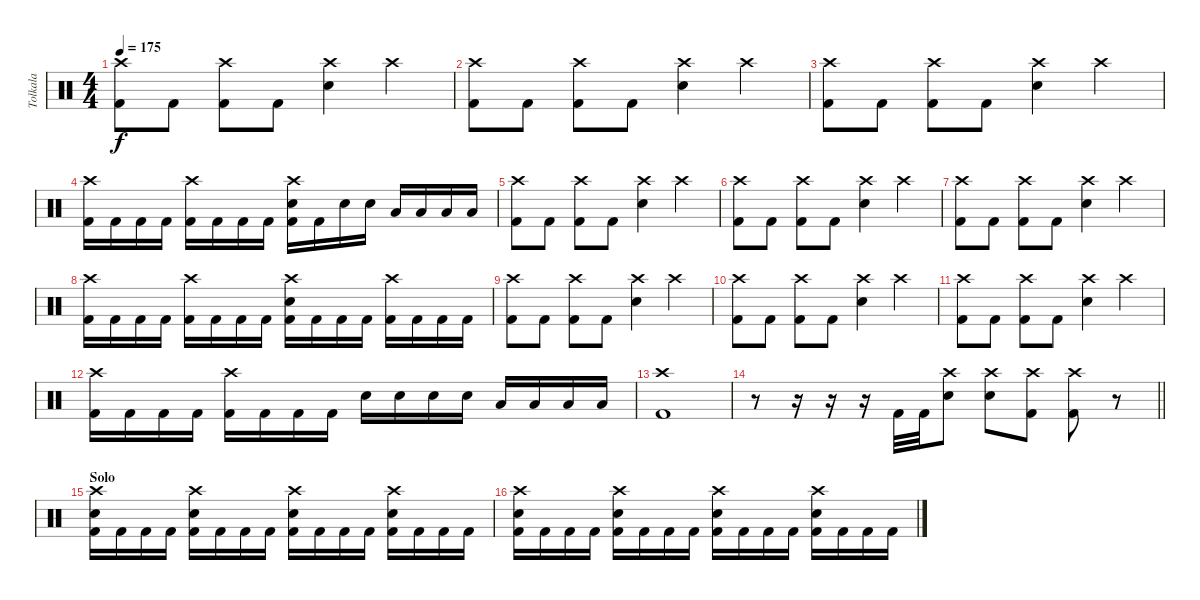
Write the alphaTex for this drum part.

\track ("Tolkala" "Tolkala") {instrument percussion}
\staff {score}
\articulation defaults
\ts (4 4)
\tempo 175
\clef neutral
\ks c
("Crash high (hit)" "Kick (hit) 2").8{dy f} "Kick (hit) 2".8 ("Crash high (hit)" "Kick (hit) 2").8 "Kick (hit) 2".8 ("Crash high (hit)" "Electric Snare (hit)").4 "Crash high (hit)".4 |
("Crash high (hit)" "Kick (hit) 2").8 "Kick (hit) 2".8 ("Crash high (hit)" "Kick (hit) 2").8 "Kick (hit) 2".8 ("Crash high (hit)" "Electric Snare (hit)").4 "Crash high (hit)".4 |
("Crash high (hit)" "Kick (hit) 2").8 "Kick (hit) 2".8 ("Crash high (hit)" "Kick (hit) 2").8 "Kick (hit) 2".8 ("Crash high (hit)" "Electric Snare (hit)").4 "Crash high (hit)".4 |
("Crash high (hit)" "Kick (hit) 2").16 "Kick (hit) 2".16 "Kick (hit) 2".16 "Kick (hit) 2".16 ("Crash high (hit)" "Kick (hit) 2").16 "Kick (hit) 2".16 "Kick (hit) 2".16 "Kick (hit) 2".16 ("Crash high (hit)" "Electric Snare (hit)" "Kick (hit) 2").16 "Kick (hit) 2".16 "Electric Snare (hit)".16 "Electric Snare (hit)".16 "Low Tom (hit)".16 "Low Tom (hit)".16 "Low Tom (hit)".16 "Low Tom (hit)".16 |
("Crash high (hit)" "Kick (hit) 2").8 "Kick (hit) 2".8 ("Crash high (hit)" "Kick (hit) 2").8 "Kick (hit) 2".8 ("Crash high (hit)" "Electric Snare (hit)").4 "Crash high (hit)".4 |
("Crash high (hit)" "Kick (hit) 2").8 "Kick (hit) 2".8 ("Crash high (hit)" "Kick (hit) 2").8 "Kick (hit) 2".8 ("Crash high (hit)" "Electric Snare (hit)").4 "Crash high (hit)".4 |
("Crash high (hit)" "Kick (hit) 2").8 "Kick (hit) 2".8 ("Crash high (hit)" "Kick (hit) 2").8 "Kick (hit) 2".8 ("Crash high (hit)" "Electric Snare (hit)").4 "Crash high (hit)".4 |
("Crash high (hit)" "Kick (hit) 2").16 "Kick (hit) 2".16 "Kick (hit) 2".16 "Kick (hit) 2".16 ("Crash high (hit)" "Kick (hit) 2").16 "Kick (hit) 2".16 "Kick (hit) 2".16 "Kick (hit) 2".16 ("Crash high (hit)" "Electric Snare (hit)" "Kick (hit) 2").16 "Kick (hit) 2".16 "Kick (hit) 2".16 "Kick (hit) 2".16 ("Crash high (hit)" "Kick (hit) 2").16 "Kick (hit) 2".16 "Kick (hit) 2".16 "Kick (hit) 2".16 |
("Crash high (hit)" "Kick (hit) 2").8 "Kick (hit) 2".8 ("Crash high (hit)" "Kick (hit) 2").8 "Kick (hit) 2".8 ("Crash high (hit)" "Electric Snare (hit)").4 "Crash high (hit)".4 |
("Crash high (hit)" "Kick (hit) 2").8 "Kick (hit) 2".8 ("Crash high (hit)" "Kick (hit) 2").8 "Kick (hit) 2".8 ("Crash high (hit)" "Electric Snare (hit)").4 "Crash high (hit)".4 |
("Crash high (hit)" "Kick (hit) 2").8 "Kick (hit) 2".8 ("Crash high (hit)" "Kick (hit) 2").8 "Kick (hit) 2".8 ("Crash high (hit)" "Electric Snare (hit)").4 "Crash high (hit)".4 |
("Crash high (hit)" "Kick (hit) 2").16 "Kick (hit) 2".16 "Kick (hit) 2".16 "Kick (hit) 2".16 ("Crash high (hit)" "Kick (hit) 2").16 "Kick (hit) 2".16 "Kick (hit) 2".16 "Kick (hit) 2".16 "Electric Snare (hit)".16 "Electric Snare (hit)".16 "Electric Snare (hit)".16 "Electric Snare (hit)".16 "Low Tom (hit)".16 "Low Tom (hit)".16 "Low Tom (hit)".16 "Low Tom (hit)".16 |
("Crash high (hit)" "Kick (hit) 2").1 |
\barLineRight lightlight
r.8 r.16 r.16 r.16 "Kick (hit) 2".32 "Kick (hit) 2".32 ("Crash high (hit)" "Electric Snare (hit)").8 ("Crash high (hit)" "Electric Snare (hit)").8 ("Crash high (hit)" "Kick (hit) 2").8 ("Crash high (hit)" "Kick (hit) 2").8 r.8 |
\section ("" "Solo")
("Crash high (hit)" "Electric Snare (hit)" "Kick (hit) 2").16 "Kick (hit) 2".16 "Kick (hit) 2".16 "Kick (hit) 2".16 ("Crash high (hit)" "Electric Snare (hit)" "Kick (hit) 2").16 "Kick (hit) 2".16 "Kick (hit) 2".16 "Kick (hit) 2".16 ("Crash high (hit)" "Electric Snare (hit)" "Kick (hit) 2").16 "Kick (hit) 2".16 "Kick (hit) 2".16 "Kick (hit) 2".16 ("Crash high (hit)" "Electric Snare (hit)" "Kick (hit) 2").16 "Kick (hit) 2".16 "Kick (hit) 2".16 "Kick (hit) 2".16 |
("Crash high (hit)" "Electric Snare (hit)" "Kick (hit) 2").16 "Kick (hit) 2".16 "Kick (hit) 2".16 "Kick (hit) 2".16 ("Crash high (hit)" "Electric Snare (hit)" "Kick (hit) 2").16 "Kick (hit) 2".16 "Kick (hit) 2".16 "Kick (hit) 2".16 ("Crash high (hit)" "Electric Snare (hit)" "Kick (hit) 2").16 "Kick (hit) 2".16 "Kick (hit) 2".16 "Kick (hit) 2".16 ("Crash high (hit)" "Electric Snare (hit)" "Kick (hit) 2").16 "Kick (hit) 2".16 "Kick (hit) 2".16 "Kick (hit) 2".16
